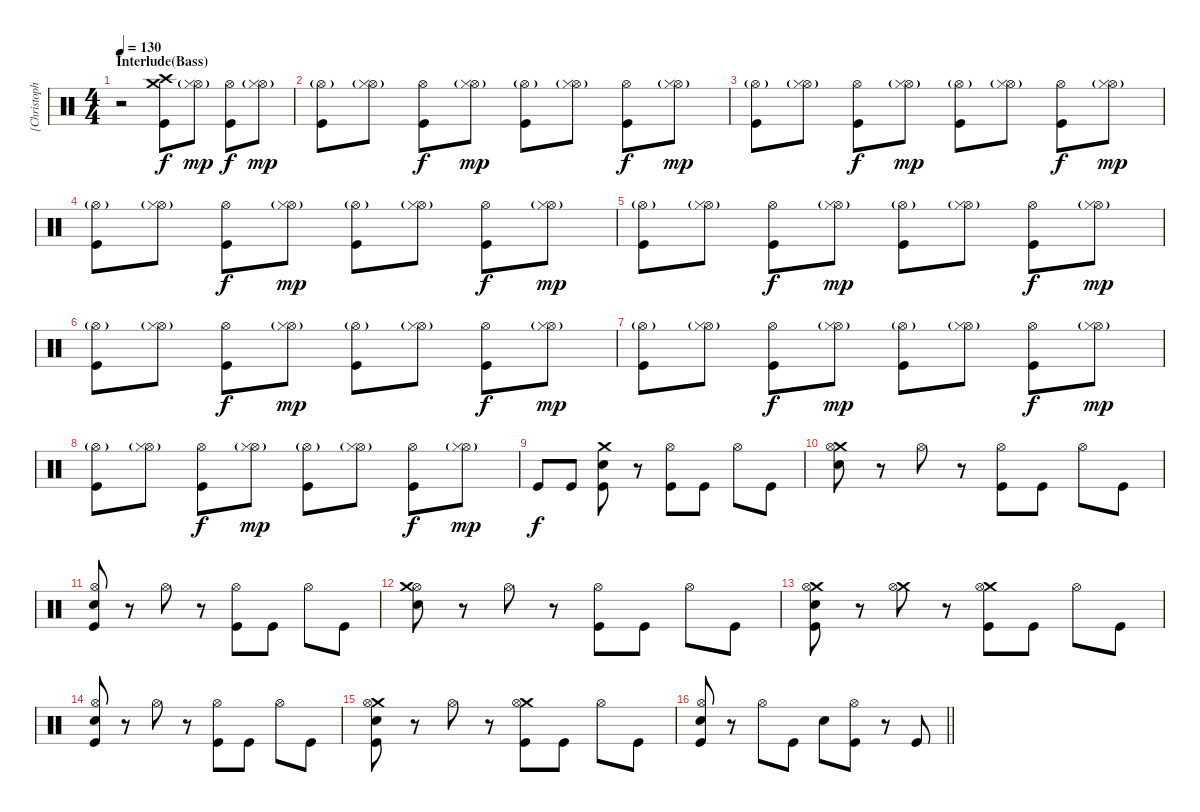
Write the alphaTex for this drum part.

\track ("[Christoph Schneider]  Drums" "[Christoph") {instrument percussion}
\staff {score}
\articulation defaults
\ts (4 4)
\section ("" "Interlude(Bass)")
\tempo 130
\clef neutral
\ks c
r.2{dy f} ("Crash medium (hit)" "Crash high (hit)" "Kick (hit)").8 ("Hi-Hat (open)"{g} "Hi-Hat (closed)").8{dy mp} ("Hi-Hat (open)" "Kick (hit)").8{dy f} ("Hi-Hat (open)"{g} "Hi-Hat (closed)").8{dy mp} |
("Hi-Hat (open)"{g} "Kick (hit)").8 ("Hi-Hat (open)"{g} "Hi-Hat (closed)").8 ("Hi-Hat (open)" "Kick (hit)").8{dy f} ("Hi-Hat (open)"{g} "Hi-Hat (closed)").8{dy mp} ("Hi-Hat (open)"{g} "Kick (hit)").8 ("Hi-Hat (open)"{g} "Hi-Hat (closed)").8 ("Hi-Hat (open)" "Kick (hit)").8{dy f} ("Hi-Hat (open)"{g} "Hi-Hat (closed)").8{dy mp} |
("Hi-Hat (open)"{g} "Kick (hit)").8 ("Hi-Hat (open)"{g} "Hi-Hat (closed)").8 ("Hi-Hat (open)" "Kick (hit)").8{dy f} ("Hi-Hat (open)"{g} "Hi-Hat (closed)").8{dy mp} ("Hi-Hat (open)"{g} "Kick (hit)").8 ("Hi-Hat (open)"{g} "Hi-Hat (closed)").8 ("Hi-Hat (open)" "Kick (hit)").8{dy f} ("Hi-Hat (open)"{g} "Hi-Hat (closed)").8{dy mp} |
("Hi-Hat (open)"{g} "Kick (hit)").8 ("Hi-Hat (open)"{g} "Hi-Hat (closed)").8 ("Hi-Hat (open)" "Kick (hit)").8{dy f} ("Hi-Hat (open)"{g} "Hi-Hat (closed)").8{dy mp} ("Hi-Hat (open)"{g} "Kick (hit)").8 ("Hi-Hat (open)"{g} "Hi-Hat (closed)").8 ("Hi-Hat (open)" "Kick (hit)").8{dy f} ("Hi-Hat (open)"{g} "Hi-Hat (closed)").8{dy mp} |
("Hi-Hat (open)"{g} "Kick (hit)").8 ("Hi-Hat (open)"{g} "Hi-Hat (closed)").8 ("Hi-Hat (open)" "Kick (hit)").8{dy f} ("Hi-Hat (open)"{g} "Hi-Hat (closed)").8{dy mp} ("Hi-Hat (open)"{g} "Kick (hit)").8 ("Hi-Hat (open)"{g} "Hi-Hat (closed)").8 ("Hi-Hat (open)" "Kick (hit)").8{dy f} ("Hi-Hat (open)"{g} "Hi-Hat (closed)").8{dy mp} |
("Hi-Hat (open)"{g} "Kick (hit)").8 ("Hi-Hat (open)"{g} "Hi-Hat (closed)").8 ("Hi-Hat (open)" "Kick (hit)").8{dy f} ("Hi-Hat (open)"{g} "Hi-Hat (closed)").8{dy mp} ("Hi-Hat (open)"{g} "Kick (hit)").8 ("Hi-Hat (open)"{g} "Hi-Hat (closed)").8 ("Hi-Hat (open)" "Kick (hit)").8{dy f} ("Hi-Hat (open)"{g} "Hi-Hat (closed)").8{dy mp} |
("Hi-Hat (open)"{g} "Kick (hit)").8 ("Hi-Hat (open)"{g} "Hi-Hat (closed)").8 ("Hi-Hat (open)" "Kick (hit)").8{dy f} ("Hi-Hat (open)"{g} "Hi-Hat (closed)").8{dy mp} ("Hi-Hat (open)"{g} "Kick (hit)").8 ("Hi-Hat (open)"{g} "Hi-Hat (closed)").8 ("Hi-Hat (open)" "Kick (hit)").8{dy f} ("Hi-Hat (open)"{g} "Hi-Hat (closed)").8{dy mp} |
("Hi-Hat (open)"{g} "Kick (hit)").8 ("Hi-Hat (open)"{g} "Hi-Hat (closed)").8 ("Hi-Hat (open)" "Kick (hit)").8{dy f} ("Hi-Hat (open)"{g} "Hi-Hat (closed)").8{dy mp} ("Hi-Hat (open)"{g} "Kick (hit)").8 ("Hi-Hat (open)"{g} "Hi-Hat (closed)").8 ("Hi-Hat (open)" "Kick (hit)").8{dy f} ("Hi-Hat (open)"{g} "Hi-Hat (closed)").8{dy mp} |
"Kick (hit)".8{dy f} "Kick (hit)".8 ("Snare (hit) 2" "Crash medium (hit)" "Kick (hit)").8 r.8 ("Hi-Hat (open)" "Kick (hit)").8 "Kick (hit)".8 "Hi-Hat (open)".8 "Kick (hit)".8 |
("Snare (hit) 2" "Crash medium (hit)" "Hi-Hat (open)").8 r.8 "Hi-Hat (open)".8 r.8 ("Hi-Hat (open)" "Kick (hit)").8 "Kick (hit)".8 "Hi-Hat (open)".8 "Kick (hit)".8 |
("Snare (hit) 2" "Hi-Hat (open)" "Kick (hit)").8 r.8 "Hi-Hat (open)".8 r.8 ("Hi-Hat (open)" "Kick (hit)").8 "Kick (hit)".8 "Hi-Hat (open)".8 "Kick (hit)".8 |
("Snare (hit) 2" "Hi-Hat (open)" "Crash medium (hit)").8 r.8 "Hi-Hat (open)".8 r.8 ("Hi-Hat (open)" "Kick (hit)").8 "Kick (hit)".8 "Hi-Hat (open)".8 "Kick (hit)".8 |
("Crash medium (hit)" "Snare (hit) 2" "Hi-Hat (open)" "Kick (hit)").8 r.8 ("Crash medium (hit)" "Hi-Hat (open)").8 r.8 ("Crash medium (hit)" "Hi-Hat (open)" "Kick (hit)").8 "Kick (hit)".8 "Hi-Hat (open)".8 "Kick (hit)".8 |
("Snare (hit) 2" "Hi-Hat (open)" "Kick (hit)").8 r.8 "Hi-Hat (open)".8 r.8 ("Hi-Hat (open)" "Kick (hit)").8 "Kick (hit)".8 "Hi-Hat (open)".8 "Kick (hit)".8 |
("Snare (hit) 2" "Crash medium (hit)" "Hi-Hat (open)" "Kick (hit)").8 r.8 "Hi-Hat (open)".8 r.8 ("Crash medium (hit)" "Hi-Hat (open)" "Kick (hit)").8 "Kick (hit)".8 "Hi-Hat (open)".8 "Kick (hit)".8 |
\barLineRight lightlight
("Snare (hit) 2" "Hi-Hat (open)" "Kick (hit)").8 r.8 "Hi-Hat (open)".8 "Kick (hit)".8 "Snare (hit) 2".8 ("Hi-Hat (open)" "Kick (hit)").8 r.8 "Kick (hit)".8
